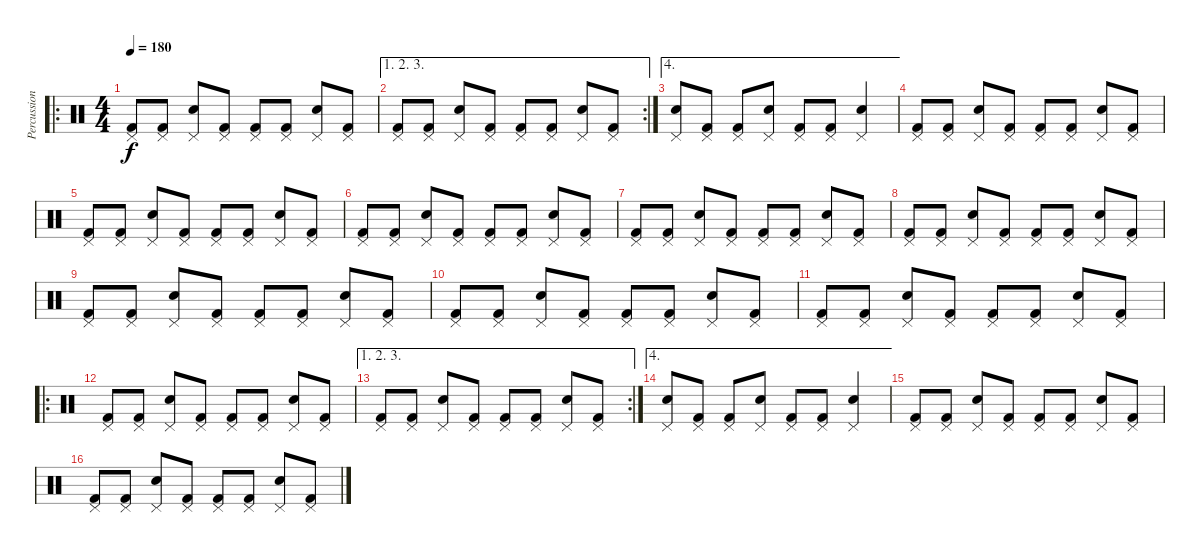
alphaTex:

\track ("Percussion" "Percussion") {instrument percussion}
\staff {score}
\articulation defaults
\ro
\ts (4 4)
\tempo 180
\clef neutral
\ks c
("Pedal Hi-Hat (hit)" "Kick (hit) 2").8{dy f} ("Pedal Hi-Hat (hit)" "Kick (hit) 2").8 ("Pedal Hi-Hat (hit)" "Snare (hit) 2").8 ("Pedal Hi-Hat (hit)" "Kick (hit) 2").8 ("Pedal Hi-Hat (hit)" "Kick (hit) 2").8 ("Pedal Hi-Hat (hit)" "Kick (hit) 2").8 ("Pedal Hi-Hat (hit)" "Snare (hit) 2").8 ("Pedal Hi-Hat (hit)" "Kick (hit) 2").8 |
\ae (1 2 3)
\rc 2
("Pedal Hi-Hat (hit)" "Kick (hit) 2").8 ("Pedal Hi-Hat (hit)" "Kick (hit) 2").8 ("Pedal Hi-Hat (hit)" "Snare (hit) 2").8 ("Pedal Hi-Hat (hit)" "Kick (hit) 2").8 ("Pedal Hi-Hat (hit)" "Kick (hit) 2").8 ("Pedal Hi-Hat (hit)" "Kick (hit) 2").8 ("Pedal Hi-Hat (hit)" "Snare (hit) 2").8 ("Pedal Hi-Hat (hit)" "Kick (hit) 2").8 |
\ae 4
("Pedal Hi-Hat (hit)" "Snare (hit) 2").8 ("Pedal Hi-Hat (hit)" "Kick (hit) 2").8 ("Pedal Hi-Hat (hit)" "Kick (hit) 2").8 ("Pedal Hi-Hat (hit)" "Snare (hit) 2").8 ("Pedal Hi-Hat (hit)" "Kick (hit) 2").8 ("Pedal Hi-Hat (hit)" "Kick (hit) 2").8 ("Pedal Hi-Hat (hit)" "Snare (hit) 2").4 |
("Pedal Hi-Hat (hit)" "Kick (hit) 2").8 ("Pedal Hi-Hat (hit)" "Kick (hit) 2").8 ("Pedal Hi-Hat (hit)" "Snare (hit) 2").8 ("Pedal Hi-Hat (hit)" "Kick (hit) 2").8 ("Pedal Hi-Hat (hit)" "Kick (hit) 2").8 ("Pedal Hi-Hat (hit)" "Kick (hit) 2").8 ("Pedal Hi-Hat (hit)" "Snare (hit) 2").8 ("Pedal Hi-Hat (hit)" "Kick (hit) 2").8 |
("Pedal Hi-Hat (hit)" "Kick (hit) 2").8 ("Pedal Hi-Hat (hit)" "Kick (hit) 2").8 ("Pedal Hi-Hat (hit)" "Snare (hit) 2").8 ("Pedal Hi-Hat (hit)" "Kick (hit) 2").8 ("Pedal Hi-Hat (hit)" "Kick (hit) 2").8 ("Pedal Hi-Hat (hit)" "Kick (hit) 2").8 ("Pedal Hi-Hat (hit)" "Snare (hit) 2").8 ("Pedal Hi-Hat (hit)" "Kick (hit) 2").8 |
("Pedal Hi-Hat (hit)" "Kick (hit) 2").8 ("Pedal Hi-Hat (hit)" "Kick (hit) 2").8 ("Pedal Hi-Hat (hit)" "Snare (hit) 2").8 ("Pedal Hi-Hat (hit)" "Kick (hit) 2").8 ("Pedal Hi-Hat (hit)" "Kick (hit) 2").8 ("Pedal Hi-Hat (hit)" "Kick (hit) 2").8 ("Pedal Hi-Hat (hit)" "Snare (hit) 2").8 ("Pedal Hi-Hat (hit)" "Kick (hit) 2").8 |
("Pedal Hi-Hat (hit)" "Kick (hit) 2").8 ("Pedal Hi-Hat (hit)" "Kick (hit) 2").8 ("Pedal Hi-Hat (hit)" "Snare (hit) 2").8 ("Pedal Hi-Hat (hit)" "Kick (hit) 2").8 ("Pedal Hi-Hat (hit)" "Kick (hit) 2").8 ("Pedal Hi-Hat (hit)" "Kick (hit) 2").8 ("Pedal Hi-Hat (hit)" "Snare (hit) 2").8 ("Pedal Hi-Hat (hit)" "Kick (hit) 2").8 |
("Pedal Hi-Hat (hit)" "Kick (hit) 2").8 ("Pedal Hi-Hat (hit)" "Kick (hit) 2").8 ("Pedal Hi-Hat (hit)" "Snare (hit) 2").8 ("Pedal Hi-Hat (hit)" "Kick (hit) 2").8 ("Pedal Hi-Hat (hit)" "Kick (hit) 2").8 ("Pedal Hi-Hat (hit)" "Kick (hit) 2").8 ("Pedal Hi-Hat (hit)" "Snare (hit) 2").8 ("Pedal Hi-Hat (hit)" "Kick (hit) 2").8 |
("Pedal Hi-Hat (hit)" "Kick (hit) 2").8 ("Pedal Hi-Hat (hit)" "Kick (hit) 2").8 ("Pedal Hi-Hat (hit)" "Snare (hit) 2").8 ("Pedal Hi-Hat (hit)" "Kick (hit) 2").8 ("Pedal Hi-Hat (hit)" "Kick (hit) 2").8 ("Pedal Hi-Hat (hit)" "Kick (hit) 2").8 ("Pedal Hi-Hat (hit)" "Snare (hit) 2").8 ("Pedal Hi-Hat (hit)" "Kick (hit) 2").8 |
("Pedal Hi-Hat (hit)" "Kick (hit) 2").8 ("Pedal Hi-Hat (hit)" "Kick (hit) 2").8 ("Pedal Hi-Hat (hit)" "Snare (hit) 2").8 ("Pedal Hi-Hat (hit)" "Kick (hit) 2").8 ("Pedal Hi-Hat (hit)" "Kick (hit) 2").8 ("Pedal Hi-Hat (hit)" "Kick (hit) 2").8 ("Pedal Hi-Hat (hit)" "Snare (hit) 2").8 ("Pedal Hi-Hat (hit)" "Kick (hit) 2").8 |
("Pedal Hi-Hat (hit)" "Kick (hit) 2").8 ("Pedal Hi-Hat (hit)" "Kick (hit) 2").8 ("Pedal Hi-Hat (hit)" "Snare (hit) 2").8 ("Pedal Hi-Hat (hit)" "Kick (hit) 2").8 ("Pedal Hi-Hat (hit)" "Kick (hit) 2").8 ("Pedal Hi-Hat (hit)" "Kick (hit) 2").8 ("Pedal Hi-Hat (hit)" "Snare (hit) 2").8 ("Pedal Hi-Hat (hit)" "Kick (hit) 2").8 |
\ro
("Pedal Hi-Hat (hit)" "Kick (hit) 2").8 ("Pedal Hi-Hat (hit)" "Kick (hit) 2").8 ("Pedal Hi-Hat (hit)" "Snare (hit) 2").8 ("Pedal Hi-Hat (hit)" "Kick (hit) 2").8 ("Pedal Hi-Hat (hit)" "Kick (hit) 2").8 ("Pedal Hi-Hat (hit)" "Kick (hit) 2").8 ("Pedal Hi-Hat (hit)" "Snare (hit) 2").8 ("Pedal Hi-Hat (hit)" "Kick (hit) 2").8 |
\ae (1 2 3)
\rc 2
("Pedal Hi-Hat (hit)" "Kick (hit) 2").8 ("Pedal Hi-Hat (hit)" "Kick (hit) 2").8 ("Pedal Hi-Hat (hit)" "Snare (hit) 2").8 ("Pedal Hi-Hat (hit)" "Kick (hit) 2").8 ("Pedal Hi-Hat (hit)" "Kick (hit) 2").8 ("Pedal Hi-Hat (hit)" "Kick (hit) 2").8 ("Pedal Hi-Hat (hit)" "Snare (hit) 2").8 ("Pedal Hi-Hat (hit)" "Kick (hit) 2").8 |
\ae 4
("Pedal Hi-Hat (hit)" "Snare (hit) 2").8 ("Pedal Hi-Hat (hit)" "Kick (hit) 2").8 ("Pedal Hi-Hat (hit)" "Kick (hit) 2").8 ("Pedal Hi-Hat (hit)" "Snare (hit) 2").8 ("Pedal Hi-Hat (hit)" "Kick (hit) 2").8 ("Pedal Hi-Hat (hit)" "Kick (hit) 2").8 ("Pedal Hi-Hat (hit)" "Snare (hit) 2").4 |
("Pedal Hi-Hat (hit)" "Kick (hit) 2").8 ("Pedal Hi-Hat (hit)" "Kick (hit) 2").8 ("Pedal Hi-Hat (hit)" "Snare (hit) 2").8 ("Pedal Hi-Hat (hit)" "Kick (hit) 2").8 ("Pedal Hi-Hat (hit)" "Kick (hit) 2").8 ("Pedal Hi-Hat (hit)" "Kick (hit) 2").8 ("Pedal Hi-Hat (hit)" "Snare (hit) 2").8 ("Pedal Hi-Hat (hit)" "Kick (hit) 2").8 |
("Pedal Hi-Hat (hit)" "Kick (hit) 2").8 ("Pedal Hi-Hat (hit)" "Kick (hit) 2").8 ("Pedal Hi-Hat (hit)" "Snare (hit) 2").8 ("Pedal Hi-Hat (hit)" "Kick (hit) 2").8 ("Pedal Hi-Hat (hit)" "Kick (hit) 2").8 ("Pedal Hi-Hat (hit)" "Kick (hit) 2").8 ("Pedal Hi-Hat (hit)" "Snare (hit) 2").8 ("Pedal Hi-Hat (hit)" "Kick (hit) 2").8
